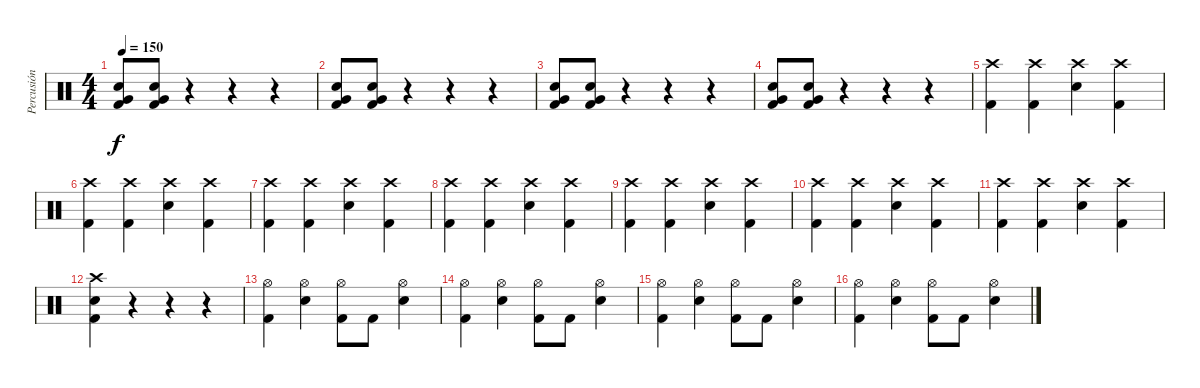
\track ("Percusión" "Percusión") {instrument percussion}
\staff {score}
\articulation defaults
\ts (4 4)
\tempo 150
\clef neutral
\ks c
("Very Low Tom (hit)" "Electric Snare (hit)" "Kick (hit) 2").8{dy f} ("Very Low Tom (hit)" "Electric Snare (hit)" "Kick (hit) 2").8 r.4 r.4 r.4 |
("Very Low Tom (hit)" "Electric Snare (hit)" "Kick (hit) 2").8 ("Very Low Tom (hit)" "Electric Snare (hit)" "Kick (hit) 2").8 r.4 r.4 r.4 |
("Very Low Tom (hit)" "Electric Snare (hit)" "Kick (hit) 2").8 ("Very Low Tom (hit)" "Electric Snare (hit)" "Kick (hit) 2").8 r.4 r.4 r.4 |
("Very Low Tom (hit)" "Electric Snare (hit)" "Kick (hit) 2").8 ("Very Low Tom (hit)" "Electric Snare (hit)" "Kick (hit) 2").8 r.4 r.4 r.4 |
("Crash high (hit)" "Kick (hit) 2").4 ("Crash high (hit)" "Kick (hit) 2").4 ("Crash high (hit)" "Electric Snare (hit)").4 ("Crash high (hit)" "Kick (hit) 2").4 |
("Crash high (hit)" "Kick (hit) 2").4 ("Crash high (hit)" "Kick (hit) 2").4 ("Crash high (hit)" "Electric Snare (hit)").4 ("Crash high (hit)" "Kick (hit) 2").4 |
("Crash high (hit)" "Kick (hit) 2").4 ("Crash high (hit)" "Kick (hit) 2").4 ("Crash high (hit)" "Electric Snare (hit)").4 ("Crash high (hit)" "Kick (hit) 2").4 |
("Crash high (hit)" "Kick (hit) 2").4 ("Crash high (hit)" "Kick (hit) 2").4 ("Crash high (hit)" "Electric Snare (hit)").4 ("Crash high (hit)" "Kick (hit) 2").4 |
("Crash high (hit)" "Kick (hit) 2").4 ("Crash high (hit)" "Kick (hit) 2").4 ("Crash high (hit)" "Electric Snare (hit)").4 ("Crash high (hit)" "Kick (hit) 2").4 |
("Crash high (hit)" "Kick (hit) 2").4 ("Crash high (hit)" "Kick (hit) 2").4 ("Crash high (hit)" "Electric Snare (hit)").4 ("Crash high (hit)" "Kick (hit) 2").4 |
("Crash high (hit)" "Kick (hit) 2").4 ("Crash high (hit)" "Kick (hit) 2").4 ("Crash high (hit)" "Electric Snare (hit)").4 ("Crash high (hit)" "Kick (hit) 2").4 |
("Crash high (hit)" "Electric Snare (hit)" "Kick (hit) 2").4 r.4 r.4 r.4 |
("Hi-Hat (open)" "Kick (hit) 2").4 ("Hi-Hat (open)" "Electric Snare (hit)").4 ("Hi-Hat (open)" "Kick (hit) 2").8 "Kick (hit) 2".8 ("Hi-Hat (open)" "Electric Snare (hit)").4 |
("Hi-Hat (open)" "Kick (hit) 2").4 ("Hi-Hat (open)" "Electric Snare (hit)").4 ("Hi-Hat (open)" "Kick (hit) 2").8 "Kick (hit) 2".8 ("Hi-Hat (open)" "Electric Snare (hit)").4 |
("Hi-Hat (open)" "Kick (hit) 2").4 ("Hi-Hat (open)" "Electric Snare (hit)").4 ("Hi-Hat (open)" "Kick (hit) 2").8 "Kick (hit) 2".8 ("Hi-Hat (open)" "Electric Snare (hit)").4 |
("Hi-Hat (open)" "Kick (hit) 2").4 ("Hi-Hat (open)" "Electric Snare (hit)").4 ("Hi-Hat (open)" "Kick (hit) 2").8 "Kick (hit) 2".8 ("Hi-Hat (open)" "Electric Snare (hit)").4
